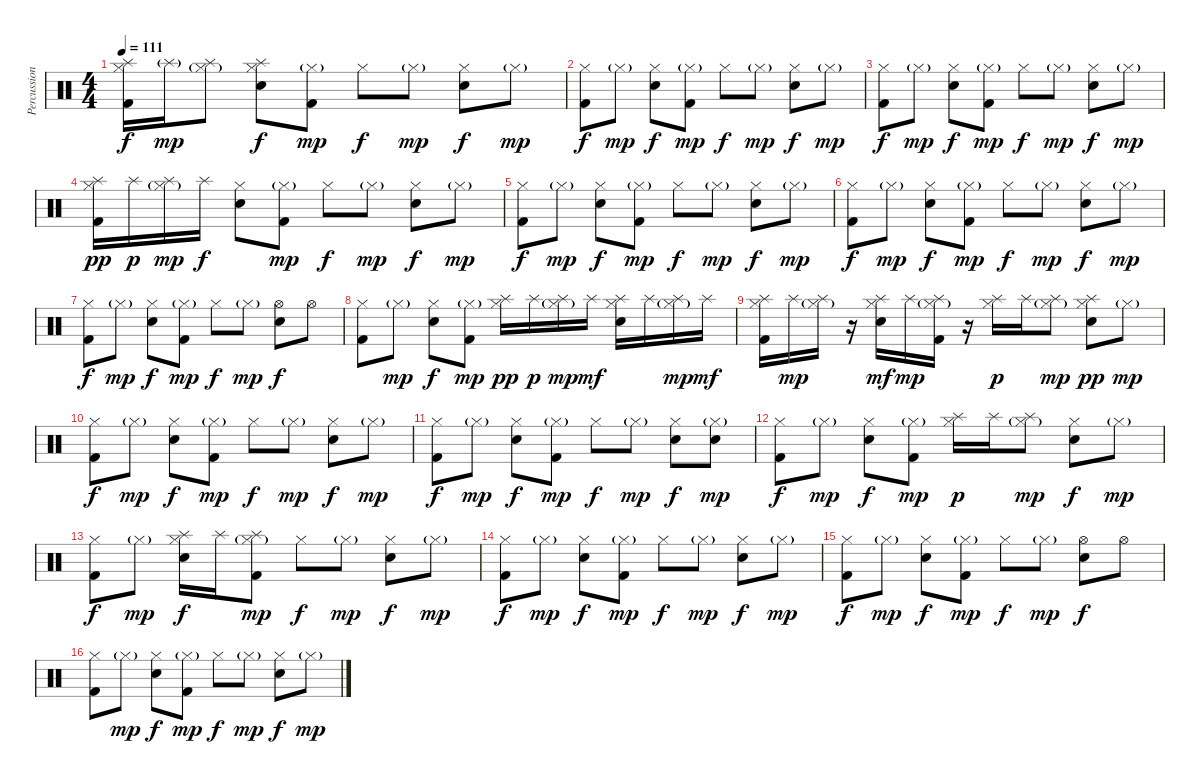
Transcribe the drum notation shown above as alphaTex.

\track ("Percussion" "Percussion") {instrument percussion}
\staff {score}
\articulation defaults
\ts (4 4)
\tempo 111
\clef neutral
\ks c
("Splash (hit)" "Hi-Hat (closed)" "Kick (hit) 2").16{dy f} "Splash (hit)"{g}.16{dy mp} ("Splash (hit)" "Hi-Hat (closed)"{g}).8 ("Splash (hit)" "Hi-Hat (closed)" "Electric Snare (hit)").8{dy f} ("Hi-Hat (closed)"{g} "Kick (hit) 2").8{dy mp} "Hi-Hat (closed)".8{dy f} "Hi-Hat (closed)"{g}.8{dy mp} ("Hi-Hat (closed)" "Electric Snare (hit)").8{dy f} "Hi-Hat (closed)"{g}.8{dy mp} |
("Hi-Hat (closed)" "Kick (hit) 2").8{dy f} "Hi-Hat (closed)"{g}.8{dy mp} ("Hi-Hat (closed)" "Electric Snare (hit)").8{dy f} ("Hi-Hat (closed)"{g} "Kick (hit) 2").8{dy mp} "Hi-Hat (closed)".8{dy f} "Hi-Hat (closed)"{g}.8{dy mp} ("Hi-Hat (closed)" "Electric Snare (hit)").8{dy f} "Hi-Hat (closed)"{g}.8{dy mp} |
("Hi-Hat (closed)" "Kick (hit) 2").8{dy f} "Hi-Hat (closed)"{g}.8{dy mp} ("Hi-Hat (closed)" "Electric Snare (hit)").8{dy f} ("Hi-Hat (closed)"{g} "Kick (hit) 2").8{dy mp} "Hi-Hat (closed)".8{dy f} "Hi-Hat (closed)"{g}.8{dy mp} ("Hi-Hat (closed)" "Electric Snare (hit)").8{dy f} "Hi-Hat (closed)"{g}.8{dy mp} |
("Splash (hit)" "Hi-Hat (closed)" "Kick (hit) 2").16{dy pp} "Splash (hit)".16{dy p} ("Splash (hit)" "Hi-Hat (closed)"{g}).16{dy mp} "Splash (hit)".16{dy f} ("Hi-Hat (closed)" "Electric Snare (hit)").8 ("Hi-Hat (closed)"{g} "Kick (hit) 2").8{dy mp} "Hi-Hat (closed)".8{dy f} "Hi-Hat (closed)"{g}.8{dy mp} ("Hi-Hat (closed)" "Electric Snare (hit)").8{dy f} "Hi-Hat (closed)"{g}.8{dy mp} |
("Hi-Hat (closed)" "Kick (hit) 2").8{dy f} "Hi-Hat (closed)"{g}.8{dy mp} ("Hi-Hat (closed)" "Electric Snare (hit)").8{dy f} ("Hi-Hat (closed)"{g} "Kick (hit) 2").8{dy mp} "Hi-Hat (closed)".8{dy f} "Hi-Hat (closed)"{g}.8{dy mp} ("Hi-Hat (closed)" "Electric Snare (hit)").8{dy f} "Hi-Hat (closed)"{g}.8{dy mp} |
("Hi-Hat (closed)" "Kick (hit) 2").8{dy f} "Hi-Hat (closed)"{g}.8{dy mp} ("Hi-Hat (closed)" "Electric Snare (hit)").8{dy f} ("Hi-Hat (closed)"{g} "Kick (hit) 2").8{dy mp} "Hi-Hat (closed)".8{dy f} "Hi-Hat (closed)"{g}.8{dy mp} ("Hi-Hat (closed)" "Electric Snare (hit)").8{dy f} "Hi-Hat (closed)"{g}.8{dy mp} |
("Hi-Hat (closed)" "Kick (hit) 2").8{dy f} "Hi-Hat (closed)"{g}.8{dy mp} ("Hi-Hat (closed)" "Electric Snare (hit)").8{dy f} ("Hi-Hat (closed)"{g} "Kick (hit) 2").8{dy mp} "Hi-Hat (closed)".8{dy f} "Hi-Hat (closed)"{g}.8{dy mp} ("Hi-Hat (open)" "Electric Snare (hit)").8{dy f} "Hi-Hat (open)".8 |
("Hi-Hat (closed)" "Kick (hit) 2").8 "Hi-Hat (closed)"{g}.8{dy mp} ("Hi-Hat (closed)" "Electric Snare (hit)").8{dy f} ("Hi-Hat (closed)"{g} "Kick (hit) 2").8{dy mp} ("Splash (hit)" "Hi-Hat (closed)").16{dy pp} "Splash (hit)".16{dy p} ("Splash (hit)" "Hi-Hat (closed)"{g}).16{dy mp} "Splash (hit)".16{dy mf} ("Splash (hit)" "Hi-Hat (closed)" "Electric Snare (hit)").16 "Splash (hit)".16 ("Splash (hit)" "Hi-Hat (closed)"{g}).16{dy mp} "Splash (hit)".16{dy mf} |
("Splash (hit)" "Hi-Hat (closed)" "Kick (hit) 2").16 "Splash (hit)".16{dy mp} ("Splash (hit)" "Hi-Hat (closed)"{g}).16 r.16 ("Splash (hit)" "Hi-Hat (closed)" "Electric Snare (hit)").16{dy mf} "Splash (hit)".16{dy mp} ("Splash (hit)" "Hi-Hat (closed)"{g} "Kick (hit) 2").16 r.16 ("Splash (hit)" "Hi-Hat (closed)").16{dy p} "Splash (hit)".16 ("Splash (hit)" "Hi-Hat (closed)"{g}).8{dy mp} ("Splash (hit)" "Hi-Hat (closed)" "Electric Snare (hit)").8{dy pp} "Hi-Hat (closed)"{g}.8{dy mp} |
("Hi-Hat (closed)" "Kick (hit) 2").8{dy f} "Hi-Hat (closed)"{g}.8{dy mp} ("Hi-Hat (closed)" "Electric Snare (hit)").8{dy f} ("Hi-Hat (closed)"{g} "Kick (hit) 2").8{dy mp} "Hi-Hat (closed)".8{dy f} "Hi-Hat (closed)"{g}.8{dy mp} ("Hi-Hat (closed)" "Electric Snare (hit)").8{dy f} "Hi-Hat (closed)"{g}.8{dy mp} |
("Hi-Hat (closed)" "Kick (hit) 2").8{dy f} "Hi-Hat (closed)"{g}.8{dy mp} ("Hi-Hat (closed)" "Electric Snare (hit)").8{dy f} ("Hi-Hat (closed)"{g} "Kick (hit) 2").8{dy mp} "Hi-Hat (closed)".8{dy f} "Hi-Hat (closed)"{g}.8{dy mp} ("Hi-Hat (closed)" "Electric Snare (hit)").8{dy f} ("Hi-Hat (closed)"{g} "Electric Snare (hit)").8{dy mp} |
("Hi-Hat (closed)" "Kick (hit) 2").8{dy f} "Hi-Hat (closed)"{g}.8{dy mp} ("Hi-Hat (closed)" "Electric Snare (hit)").8{dy f} ("Hi-Hat (closed)"{g} "Kick (hit) 2").8{dy mp} ("Splash (hit)" "Hi-Hat (closed)").16{dy p} "Splash (hit)".16 ("Splash (hit)" "Hi-Hat (closed)"{g}).8{dy mp} ("Hi-Hat (closed)" "Electric Snare (hit)").8{dy f} "Hi-Hat (closed)"{g}.8{dy mp} |
("Hi-Hat (closed)" "Kick (hit) 2").8{dy f} "Hi-Hat (closed)"{g}.8{dy mp} ("Splash (hit)" "Hi-Hat (closed)" "Electric Snare (hit)").16{dy f} "Splash (hit)".16 ("Splash (hit)" "Hi-Hat (closed)"{g} "Kick (hit) 2").8{dy mp} "Hi-Hat (closed)".8{dy f} "Hi-Hat (closed)"{g}.8{dy mp} ("Hi-Hat (closed)" "Electric Snare (hit)").8{dy f} "Hi-Hat (closed)"{g}.8{dy mp} |
("Hi-Hat (closed)" "Kick (hit) 2").8{dy f} "Hi-Hat (closed)"{g}.8{dy mp} ("Hi-Hat (closed)" "Electric Snare (hit)").8{dy f} ("Hi-Hat (closed)"{g} "Kick (hit) 2").8{dy mp} "Hi-Hat (closed)".8{dy f} "Hi-Hat (closed)"{g}.8{dy mp} ("Hi-Hat (closed)" "Electric Snare (hit)").8{dy f} "Hi-Hat (closed)"{g}.8{dy mp} |
("Hi-Hat (closed)" "Kick (hit) 2").8{dy f} "Hi-Hat (closed)"{g}.8{dy mp} ("Hi-Hat (closed)" "Electric Snare (hit)").8{dy f} ("Hi-Hat (closed)"{g} "Kick (hit) 2").8{dy mp} "Hi-Hat (closed)".8{dy f} "Hi-Hat (closed)"{g}.8{dy mp} ("Hi-Hat (open)" "Electric Snare (hit)").8{dy f} "Hi-Hat (open)".8 |
("Hi-Hat (closed)" "Kick (hit) 2").8 "Hi-Hat (closed)"{g}.8{dy mp} ("Hi-Hat (closed)" "Electric Snare (hit)").8{dy f} ("Hi-Hat (closed)"{g} "Kick (hit) 2").8{dy mp} "Hi-Hat (closed)".8{dy f} "Hi-Hat (closed)"{g}.8{dy mp} ("Hi-Hat (closed)" "Electric Snare (hit)").8{dy f} "Hi-Hat (closed)"{g}.8{dy mp}
